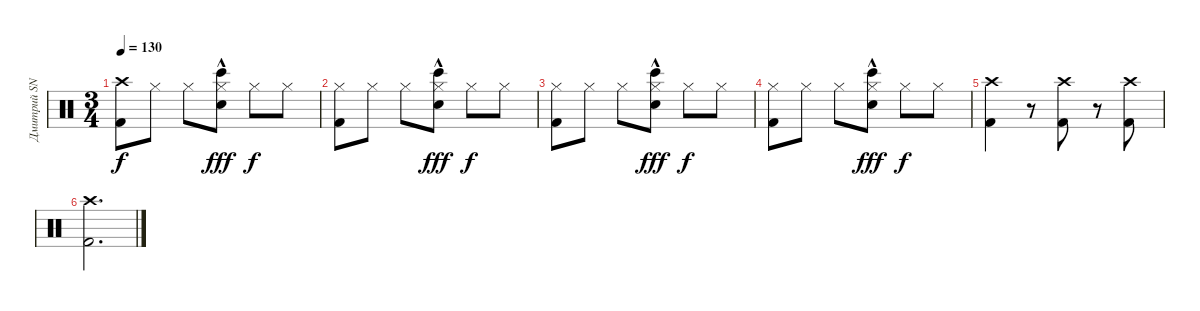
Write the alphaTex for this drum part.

\track ("Дмитрий SNAKE Хакимов" "Дмитрий SN") {instrument percussion}
\staff {score}
\articulation defaults
\ts (3 4)
\tempo 130
\clef neutral
\ks c
("Crash high (hit)" "Kick (hit) 2").8{dy f} "Hi-Hat (closed)".8 "Hi-Hat (closed)".8 ("Hi-Hat (closed)" "Snare (hit) 2"{hac} "Bongo High (hit)").8{dy fff} "Hi-Hat (closed)".8{dy f} "Hi-Hat (closed)".8 |
("Hi-Hat (closed)" "Kick (hit) 2").8 "Hi-Hat (closed)".8 "Hi-Hat (closed)".8 ("Hi-Hat (closed)" "Snare (hit) 2"{hac} "Bongo High (hit)").8{dy fff} "Hi-Hat (closed)".8{dy f} "Hi-Hat (closed)".8 |
("Hi-Hat (closed)" "Kick (hit) 2").8 "Hi-Hat (closed)".8 "Hi-Hat (closed)".8 ("Hi-Hat (closed)" "Snare (hit) 2"{hac} "Bongo High (hit)").8{dy fff} "Hi-Hat (closed)".8{dy f} "Hi-Hat (closed)".8 |
("Hi-Hat (closed)" "Kick (hit) 2").8 "Hi-Hat (closed)".8 "Hi-Hat (closed)".8 ("Hi-Hat (closed)" "Snare (hit) 2"{hac} "Bongo High (hit)").8{dy fff} "Hi-Hat (closed)".8{dy f} "Hi-Hat (closed)".8 |
("Crash high (hit)" "Kick (hit) 2").4 r.8 ("Crash high (hit)" "Kick (hit) 2").8 r.8 ("Crash high (hit)" "Kick (hit) 2").8 |
("Crash high (hit)" "Kick (hit) 2").2{d}
